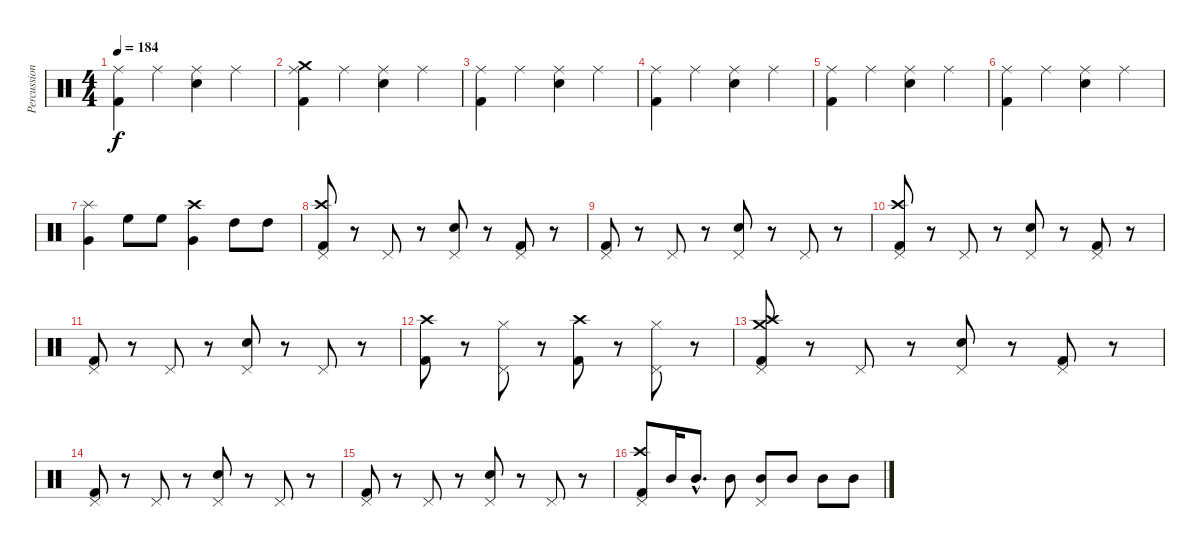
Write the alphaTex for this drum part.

\track ("Percussion" "Percussion") {instrument percussion}
\staff {score}
\articulation defaults
\ts (4 4)
\tempo 184
\clef neutral
\ks c
("Kick (hit) 2" "Ride (middle)").4{dy f} "Ride (middle)".4 ("Snare (hit) 2" "Ride (middle)").4 "Ride (middle)".4 |
("Kick (hit) 2" "Crash medium (hit)" "Ride (middle)").4 "Ride (middle)".4 ("Snare (hit) 2" "Ride (middle)").4 "Ride (middle)".4 |
("Kick (hit) 2" "Ride (middle)").4 "Ride (middle)".4 ("Snare (hit) 2" "Ride (middle)").4 "Ride (middle)".4 |
("Kick (hit) 2" "Ride (middle)").4 "Ride (middle)".4 ("Snare (hit) 2" "Ride (middle)").4 "Ride (middle)".4 |
("Kick (hit) 2" "Ride (middle)").4 "Ride (middle)".4 ("Snare (hit) 2" "Ride (middle)").4 "Ride (middle)".4 |
("Kick (hit) 2" "Ride (middle)").4 "Ride (middle)".4 ("Snare (hit) 2" "Ride (middle)").4 "Ride (middle)".4 |
("Very Low Tom (hit)" "Splash (hit)").4 "High Floor Tom (hit)".8 "High Floor Tom (hit)".8 ("Very Low Tom (hit)" "Crash high (hit)").4 "High Tom (hit)".8 "High Tom (hit)".8 |
("Kick (hit) 2" "Crash high (hit)" "Pedal Hi-Hat (hit)").8 r.8 "Pedal Hi-Hat (hit)".8 r.8 ("Snare (hit) 2" "Pedal Hi-Hat (hit)").8 r.8 ("Kick (hit) 2" "Pedal Hi-Hat (hit)").8 r.8 |
("Kick (hit) 2" "Pedal Hi-Hat (hit)").8 r.8 "Pedal Hi-Hat (hit)".8 r.8 ("Snare (hit) 2" "Pedal Hi-Hat (hit)").8 r.8 "Pedal Hi-Hat (hit)".8 r.8 |
("Kick (hit) 2" "Crash high (hit)" "Pedal Hi-Hat (hit)").8 r.8 "Pedal Hi-Hat (hit)".8 r.8 ("Snare (hit) 2" "Pedal Hi-Hat (hit)").8 r.8 ("Kick (hit) 2" "Pedal Hi-Hat (hit)").8 r.8 |
("Kick (hit) 2" "Pedal Hi-Hat (hit)").8 r.8 "Pedal Hi-Hat (hit)".8 r.8 ("Snare (hit) 2" "Pedal Hi-Hat (hit)").8 r.8 "Pedal Hi-Hat (hit)".8 r.8 |
("Kick (hit) 2" "Crash high (hit)").8 r.8 ("Pedal Hi-Hat (hit)" "Hi-Hat (closed)").8 r.8 ("Kick (hit) 2" "Crash high (hit)").8 r.8 ("Pedal Hi-Hat (hit)" "Hi-Hat (closed)").8 r.8 |
("Kick (hit) 2" "Crash medium (hit)" "Crash high (hit)" "Pedal Hi-Hat (hit)").8 r.8 "Pedal Hi-Hat (hit)".8 r.8 ("Snare (hit) 2" "Pedal Hi-Hat (hit)").8 r.8 ("Kick (hit) 2" "Pedal Hi-Hat (hit)").8 r.8 |
("Kick (hit) 2" "Pedal Hi-Hat (hit)").8 r.8 "Pedal Hi-Hat (hit)".8 r.8 ("Snare (hit) 2" "Pedal Hi-Hat (hit)").8 r.8 "Pedal Hi-Hat (hit)".8 r.8 |
("Kick (hit) 2" "Pedal Hi-Hat (hit)").8 r.8 "Pedal Hi-Hat (hit)".8 r.8 ("Snare (hit) 2" "Pedal Hi-Hat (hit)").8 r.8 "Pedal Hi-Hat (hit)".8 r.8 |
("Kick (hit) 2" "Pedal Hi-Hat (hit)" "Crash high (hit)").8 "Mid Tom (hit)".16 "Mid Tom (hit)"{hac}.8{d} "Mid Tom (hit)".8 ("Mid Tom (hit)" "Pedal Hi-Hat (hit)").8 "Mid Tom (hit)".8 "Mid Tom (hit)".8 "Mid Tom (hit)".8
